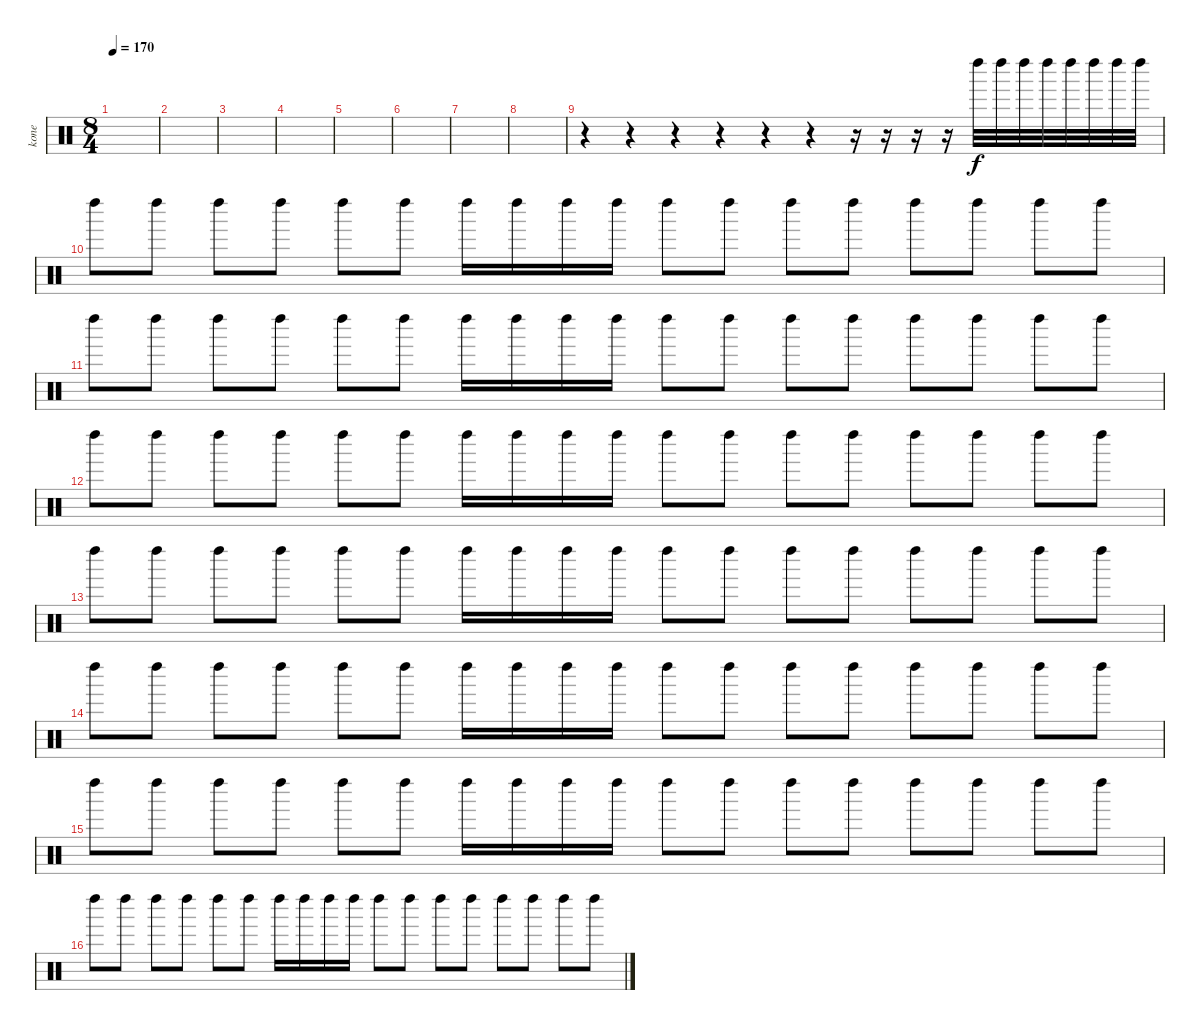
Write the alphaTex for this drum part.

\track ("kone" "kone") {instrument percussion}
\staff {score}
\articulation defaults
\ts (8 4)
\tempo 170
\clef neutral
\ks c
|
|
|
|
|
|
|
|
r.4 r.4 r.4 r.4 r.4 r.4 r.16 r.16 r.16 r.16 "Left Maraca (hit)".32 "Left Maraca (hit)".32 "Left Maraca (hit)".32 "Left Maraca (hit)".32 "Left Maraca (hit)".32 "Left Maraca (hit)".32 "Left Maraca (hit)".32 "Left Maraca (hit)".32 |
"Left Maraca (hit)".8 "Left Maraca (hit)".8 "Left Maraca (hit)".8 "Left Maraca (hit)".8 "Left Maraca (hit)".8 "Left Maraca (hit)".8 "Left Maraca (hit)".16 "Left Maraca (hit)".16 "Left Maraca (hit)".16 "Left Maraca (hit)".16 "Left Maraca (hit)".8 "Left Maraca (hit)".8 "Left Maraca (hit)".8 "Left Maraca (hit)".8 "Left Maraca (hit)".8 "Left Maraca (hit)".8 "Left Maraca (hit)".8 "Left Maraca (hit)".8 |
"Left Maraca (hit)".8 "Left Maraca (hit)".8 "Left Maraca (hit)".8 "Left Maraca (hit)".8 "Left Maraca (hit)".8 "Left Maraca (hit)".8 "Left Maraca (hit)".16 "Left Maraca (hit)".16 "Left Maraca (hit)".16 "Left Maraca (hit)".16 "Left Maraca (hit)".8 "Left Maraca (hit)".8 "Left Maraca (hit)".8 "Left Maraca (hit)".8 "Left Maraca (hit)".8 "Left Maraca (hit)".8 "Left Maraca (hit)".8 "Left Maraca (hit)".8 |
"Left Maraca (hit)".8 "Left Maraca (hit)".8 "Left Maraca (hit)".8 "Left Maraca (hit)".8 "Left Maraca (hit)".8 "Left Maraca (hit)".8 "Left Maraca (hit)".16 "Left Maraca (hit)".16 "Left Maraca (hit)".16 "Left Maraca (hit)".16 "Left Maraca (hit)".8 "Left Maraca (hit)".8 "Left Maraca (hit)".8 "Left Maraca (hit)".8 "Left Maraca (hit)".8 "Left Maraca (hit)".8 "Left Maraca (hit)".8 "Left Maraca (hit)".8 |
"Left Maraca (hit)".8 "Left Maraca (hit)".8 "Left Maraca (hit)".8 "Left Maraca (hit)".8 "Left Maraca (hit)".8 "Left Maraca (hit)".8 "Left Maraca (hit)".16 "Left Maraca (hit)".16 "Left Maraca (hit)".16 "Left Maraca (hit)".16 "Left Maraca (hit)".8 "Left Maraca (hit)".8 "Left Maraca (hit)".8 "Left Maraca (hit)".8 "Left Maraca (hit)".8 "Left Maraca (hit)".8 "Left Maraca (hit)".8 "Left Maraca (hit)".8 |
"Left Maraca (hit)".8 "Left Maraca (hit)".8 "Left Maraca (hit)".8 "Left Maraca (hit)".8 "Left Maraca (hit)".8 "Left Maraca (hit)".8 "Left Maraca (hit)".16 "Left Maraca (hit)".16 "Left Maraca (hit)".16 "Left Maraca (hit)".16 "Left Maraca (hit)".8 "Left Maraca (hit)".8 "Left Maraca (hit)".8 "Left Maraca (hit)".8 "Left Maraca (hit)".8 "Left Maraca (hit)".8 "Left Maraca (hit)".8 "Left Maraca (hit)".8 |
"Left Maraca (hit)".8 "Left Maraca (hit)".8 "Left Maraca (hit)".8 "Left Maraca (hit)".8 "Left Maraca (hit)".8 "Left Maraca (hit)".8 "Left Maraca (hit)".16 "Left Maraca (hit)".16 "Left Maraca (hit)".16 "Left Maraca (hit)".16 "Left Maraca (hit)".8 "Left Maraca (hit)".8 "Left Maraca (hit)".8 "Left Maraca (hit)".8 "Left Maraca (hit)".8 "Left Maraca (hit)".8 "Left Maraca (hit)".8 "Left Maraca (hit)".8 |
"Left Maraca (hit)".8 "Left Maraca (hit)".8 "Left Maraca (hit)".8 "Left Maraca (hit)".8 "Left Maraca (hit)".8 "Left Maraca (hit)".8 "Left Maraca (hit)".16 "Left Maraca (hit)".16 "Left Maraca (hit)".16 "Left Maraca (hit)".16 "Left Maraca (hit)".8 "Left Maraca (hit)".8 "Left Maraca (hit)".8 "Left Maraca (hit)".8 "Left Maraca (hit)".8 "Left Maraca (hit)".8 "Left Maraca (hit)".8 "Left Maraca (hit)".8
